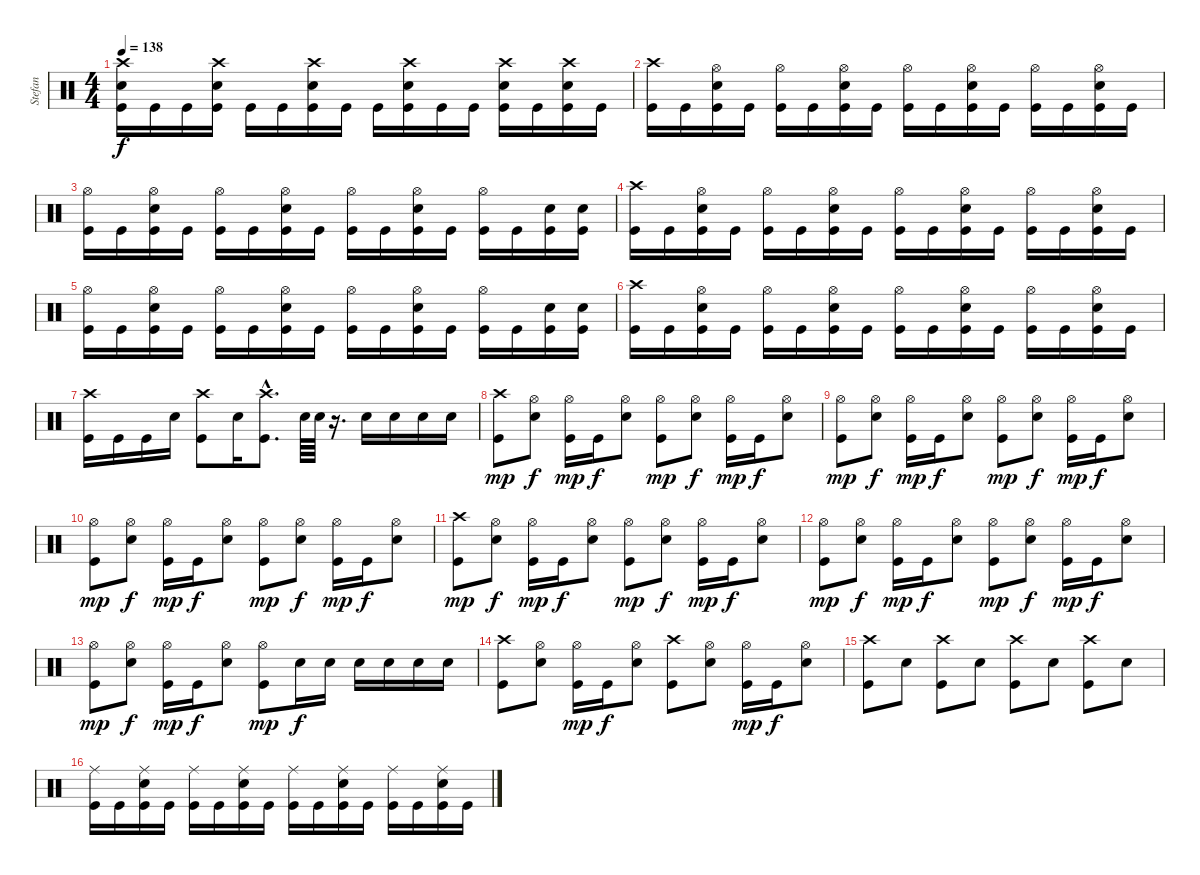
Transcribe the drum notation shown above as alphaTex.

\track ("Stefan" "Stefan") {instrument percussion}
\staff {score}
\articulation defaults
\ts (4 4)
\tempo 138
\clef neutral
\ks c
("Crash high (hit)" "Snare (hit) 2" "Kick (hit)").16{dy f} "Kick (hit)".16 "Kick (hit)".16 ("Crash high (hit)" "Snare (hit) 2" "Kick (hit)").16 "Kick (hit)".16 "Kick (hit)".16 ("Crash high (hit)" "Snare (hit) 2" "Kick (hit)").16 "Kick (hit)".16 "Kick (hit)".16 ("Crash high (hit)" "Snare (hit) 2" "Kick (hit)").16 "Kick (hit)".16 "Kick (hit)".16 ("Crash high (hit)" "Snare (hit) 2" "Kick (hit)").16 "Kick (hit)".16 ("Crash high (hit)" "Snare (hit) 2" "Kick (hit)").16 "Kick (hit)".16 |
("Kick (hit)" "Crash high (hit)").16 "Kick (hit)".16 ("Hi-Hat (open)" "Snare (hit) 2" "Kick (hit)").16 "Kick (hit)".16 ("Hi-Hat (open)" "Kick (hit)").16 "Kick (hit)".16 ("Hi-Hat (open)" "Snare (hit) 2" "Kick (hit)").16 "Kick (hit)".16 ("Hi-Hat (open)" "Kick (hit)").16 "Kick (hit)".16 ("Hi-Hat (open)" "Snare (hit) 2" "Kick (hit)").16 "Kick (hit)".16 ("Hi-Hat (open)" "Kick (hit)").16 "Kick (hit)".16 ("Hi-Hat (open)" "Snare (hit) 2" "Kick (hit)").16 "Kick (hit)".16 |
("Hi-Hat (open)" "Kick (hit)").16 "Kick (hit)".16 ("Hi-Hat (open)" "Snare (hit) 2" "Kick (hit)").16 "Kick (hit)".16 ("Hi-Hat (open)" "Kick (hit)").16 "Kick (hit)".16 ("Hi-Hat (open)" "Snare (hit) 2" "Kick (hit)").16 "Kick (hit)".16 ("Hi-Hat (open)" "Kick (hit)").16 "Kick (hit)".16 ("Hi-Hat (open)" "Snare (hit) 2" "Kick (hit)").16 "Kick (hit)".16 ("Hi-Hat (open)" "Kick (hit)").16 "Kick (hit)".16 ("Snare (hit) 2" "Kick (hit)").16 ("Snare (hit) 2" "Kick (hit)").16 |
("Crash high (hit)" "Kick (hit)").16 "Kick (hit)".16 ("Hi-Hat (open)" "Snare (hit) 2" "Kick (hit)").16 "Kick (hit)".16 ("Hi-Hat (open)" "Kick (hit)").16 "Kick (hit)".16 ("Hi-Hat (open)" "Snare (hit) 2" "Kick (hit)").16 "Kick (hit)".16 ("Hi-Hat (open)" "Kick (hit)").16 "Kick (hit)".16 ("Hi-Hat (open)" "Snare (hit) 2" "Kick (hit)").16 "Kick (hit)".16 ("Hi-Hat (open)" "Kick (hit)").16 "Kick (hit)".16 ("Hi-Hat (open)" "Snare (hit) 2" "Kick (hit)").16 "Kick (hit)".16 |
("Hi-Hat (open)" "Kick (hit)").16 "Kick (hit)".16 ("Hi-Hat (open)" "Snare (hit) 2" "Kick (hit)").16 "Kick (hit)".16 ("Hi-Hat (open)" "Kick (hit)").16 "Kick (hit)".16 ("Hi-Hat (open)" "Snare (hit) 2" "Kick (hit)").16 "Kick (hit)".16 ("Hi-Hat (open)" "Kick (hit)").16 "Kick (hit)".16 ("Hi-Hat (open)" "Snare (hit) 2" "Kick (hit)").16 "Kick (hit)".16 ("Hi-Hat (open)" "Kick (hit)").16 "Kick (hit)".16 ("Snare (hit) 2" "Kick (hit)").16 ("Snare (hit) 2" "Kick (hit)").16 |
("Crash high (hit)" "Kick (hit)").16 "Kick (hit)".16 ("Hi-Hat (open)" "Snare (hit) 2" "Kick (hit)").16 "Kick (hit)".16 ("Hi-Hat (open)" "Kick (hit)").16 "Kick (hit)".16 ("Hi-Hat (open)" "Snare (hit) 2" "Kick (hit)").16 "Kick (hit)".16 ("Hi-Hat (open)" "Kick (hit)").16 "Kick (hit)".16 ("Hi-Hat (open)" "Snare (hit) 2" "Kick (hit)").16 "Kick (hit)".16 ("Hi-Hat (open)" "Kick (hit)").16 "Kick (hit)".16 ("Hi-Hat (open)" "Snare (hit) 2" "Kick (hit)").16 "Kick (hit)".16 |
("Kick (hit)" "Crash high (hit)").16 "Kick (hit)".16 "Kick (hit)".16 "Snare (hit) 2".16 ("Kick (hit)" "Crash high (hit)").8 "Snare (hit) 2".16 ("Kick (hit)"{hac} "Crash high (hit)"{hac}).8{d} "Snare (hit) 2".64 "Snare (hit) 2".64 r.16{d} "Snare (hit) 2".16 "Snare (hit) 2".16 "Snare (hit) 2".16 "Snare (hit) 2".16 |
("Crash high (hit)" "Kick (hit)").8{dy mp} ("Hi-Hat (open)" "Snare (hit) 2").8{dy f} ("Hi-Hat (open)" "Kick (hit)").16{dy mp} "Kick (hit)".16{dy f} ("Hi-Hat (open)" "Snare (hit) 2").8 ("Hi-Hat (open)" "Kick (hit)").8{dy mp} ("Hi-Hat (open)" "Snare (hit) 2").8{dy f} ("Hi-Hat (open)" "Kick (hit)").16{dy mp} "Kick (hit)".16{dy f} ("Hi-Hat (open)" "Snare (hit) 2").8 |
("Hi-Hat (open)" "Kick (hit)").8{dy mp} ("Hi-Hat (open)" "Snare (hit) 2").8{dy f} ("Hi-Hat (open)" "Kick (hit)").16{dy mp} "Kick (hit)".16{dy f} ("Hi-Hat (open)" "Snare (hit) 2").8 ("Hi-Hat (open)" "Kick (hit)").8{dy mp} ("Hi-Hat (open)" "Snare (hit) 2").8{dy f} ("Hi-Hat (open)" "Kick (hit)").16{dy mp} "Kick (hit)".16{dy f} ("Hi-Hat (open)" "Snare (hit) 2").8 |
("Hi-Hat (open)" "Kick (hit)").8{dy mp} ("Hi-Hat (open)" "Snare (hit) 2").8{dy f} ("Hi-Hat (open)" "Kick (hit)").16{dy mp} "Kick (hit)".16{dy f} ("Hi-Hat (open)" "Snare (hit) 2").8 ("Hi-Hat (open)" "Kick (hit)").8{dy mp} ("Hi-Hat (open)" "Snare (hit) 2").8{dy f} ("Hi-Hat (open)" "Kick (hit)").16{dy mp} "Kick (hit)".16{dy f} ("Hi-Hat (open)" "Snare (hit) 2").8 |
("Crash high (hit)" "Kick (hit)").8{dy mp} ("Hi-Hat (open)" "Snare (hit) 2").8{dy f} ("Hi-Hat (open)" "Kick (hit)").16{dy mp} "Kick (hit)".16{dy f} ("Hi-Hat (open)" "Snare (hit) 2").8 ("Hi-Hat (open)" "Kick (hit)").8{dy mp} ("Hi-Hat (open)" "Snare (hit) 2").8{dy f} ("Hi-Hat (open)" "Kick (hit)").16{dy mp} "Kick (hit)".16{dy f} ("Hi-Hat (open)" "Snare (hit) 2").8 |
("Hi-Hat (open)" "Kick (hit)").8{dy mp} ("Hi-Hat (open)" "Snare (hit) 2").8{dy f} ("Hi-Hat (open)" "Kick (hit)").16{dy mp} "Kick (hit)".16{dy f} ("Hi-Hat (open)" "Snare (hit) 2").8 ("Hi-Hat (open)" "Kick (hit)").8{dy mp} ("Hi-Hat (open)" "Snare (hit) 2").8{dy f} ("Hi-Hat (open)" "Kick (hit)").16{dy mp} "Kick (hit)".16{dy f} ("Hi-Hat (open)" "Snare (hit) 2").8 |
("Hi-Hat (open)" "Kick (hit)").8{dy mp} ("Hi-Hat (open)" "Snare (hit) 2").8{dy f} ("Hi-Hat (open)" "Kick (hit)").16{dy mp} "Kick (hit)".16{dy f} ("Hi-Hat (open)" "Snare (hit) 2").8 ("Hi-Hat (open)" "Kick (hit)").8{dy mp} "Snare (hit) 2".16{dy f} "Snare (hit) 2".16 "Snare (hit) 2".16 "Snare (hit) 2".16 "Snare (hit) 2".16 "Snare (hit) 2".16 |
("Kick (hit)" "Crash high (hit)").8 ("Hi-Hat (open)" "Snare (hit) 2").8 ("Hi-Hat (open)" "Kick (hit)").16{dy mp} "Kick (hit)".16{dy f} ("Hi-Hat (open)" "Snare (hit) 2").8 ("Kick (hit)" "Crash high (hit)").8 ("Hi-Hat (open)" "Snare (hit) 2").8 ("Hi-Hat (open)" "Kick (hit)").16{dy mp} "Kick (hit)".16{dy f} ("Hi-Hat (open)" "Snare (hit) 2").8 |
("Kick (hit)" "Crash high (hit)").8 "Snare (hit) 2".8 ("Kick (hit)" "Crash high (hit)").8 "Snare (hit) 2".8 ("Kick (hit)" "Crash high (hit)").8 "Snare (hit) 2".8 ("Kick (hit)" "Crash high (hit)").8 "Snare (hit) 2".8 |
("Ride (middle)" "Kick (hit)").16 "Kick (hit)".16 ("Ride (middle)" "Snare (hit) 2" "Kick (hit)").16 "Kick (hit)".16 ("Ride (middle)" "Kick (hit)").16 "Kick (hit)".16 ("Ride (middle)" "Snare (hit) 2" "Kick (hit)").16 "Kick (hit)".16 ("Ride (middle)" "Kick (hit)").16 "Kick (hit)".16 ("Ride (middle)" "Snare (hit) 2" "Kick (hit)").16 "Kick (hit)".16 ("Ride (middle)" "Kick (hit)").16 "Kick (hit)".16 ("Ride (middle)" "Snare (hit) 2" "Kick (hit)").16 "Kick (hit)".16
